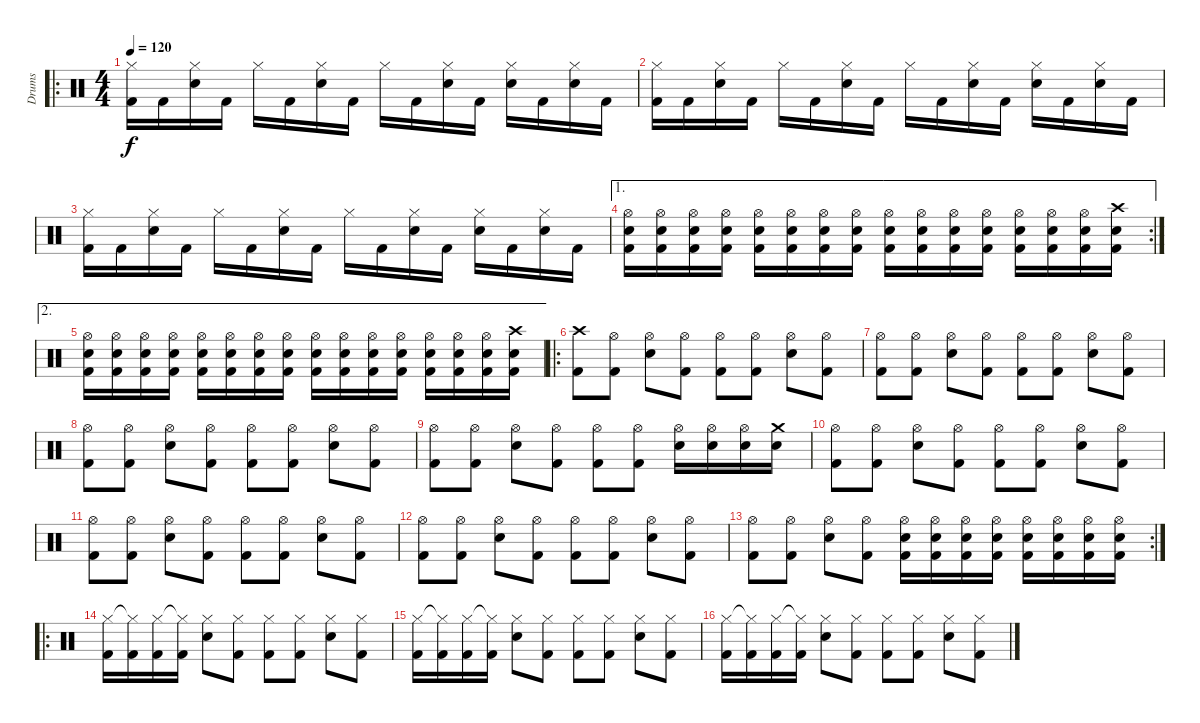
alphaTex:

\track ("Drums" "Drums") {instrument percussion}
\staff {score}
\articulation defaults
\ro
\ts (4 4)
\tempo 120
\clef neutral
\ks c
("Hi-Hat (closed)" "Kick (hit) 2").16{dy f} "Kick (hit) 2".16 ("Hi-Hat (closed)" "Electric Snare (hit)").16 "Kick (hit) 2".16 "Hi-Hat (closed)".16 "Kick (hit) 2".16 ("Hi-Hat (closed)" "Electric Snare (hit)").16 "Kick (hit) 2".16 "Hi-Hat (closed)".16 "Kick (hit) 2".16 ("Hi-Hat (closed)" "Electric Snare (hit)").16 "Kick (hit) 2".16 ("Hi-Hat (closed)" "Electric Snare (hit)").16 "Kick (hit) 2".16 ("Hi-Hat (closed)" "Electric Snare (hit)").16 "Kick (hit) 2".16 |
("Hi-Hat (closed)" "Kick (hit) 2").16 "Kick (hit) 2".16 ("Hi-Hat (closed)" "Electric Snare (hit)").16 "Kick (hit) 2".16 "Hi-Hat (closed)".16 "Kick (hit) 2".16 ("Hi-Hat (closed)" "Electric Snare (hit)").16 "Kick (hit) 2".16 "Hi-Hat (closed)".16 "Kick (hit) 2".16 ("Hi-Hat (closed)" "Electric Snare (hit)").16 "Kick (hit) 2".16 ("Hi-Hat (closed)" "Electric Snare (hit)").16 "Kick (hit) 2".16 ("Hi-Hat (closed)" "Electric Snare (hit)").16 "Kick (hit) 2".16 |
("Hi-Hat (closed)" "Kick (hit) 2").16 "Kick (hit) 2".16 ("Hi-Hat (closed)" "Electric Snare (hit)").16 "Kick (hit) 2".16 "Hi-Hat (closed)".16 "Kick (hit) 2".16 ("Hi-Hat (closed)" "Electric Snare (hit)").16 "Kick (hit) 2".16 "Hi-Hat (closed)".16 "Kick (hit) 2".16 ("Hi-Hat (closed)" "Electric Snare (hit)").16 "Kick (hit) 2".16 ("Hi-Hat (closed)" "Electric Snare (hit)").16 "Kick (hit) 2".16 ("Hi-Hat (closed)" "Electric Snare (hit)").16 "Kick (hit) 2".16 |
\ae 1
\rc 2
("Kick (hit) 2" "Hi-Hat (open)" "Electric Snare (hit)").16 ("Kick (hit) 2" "Hi-Hat (open)" "Electric Snare (hit)").16 ("Kick (hit) 2" "Hi-Hat (open)" "Electric Snare (hit)").16 ("Kick (hit) 2" "Hi-Hat (open)" "Electric Snare (hit)").16 ("Kick (hit) 2" "Hi-Hat (open)" "Electric Snare (hit)").16 ("Kick (hit) 2" "Hi-Hat (open)" "Electric Snare (hit)").16 ("Kick (hit) 2" "Hi-Hat (open)" "Electric Snare (hit)").16 ("Kick (hit) 2" "Hi-Hat (open)" "Electric Snare (hit)").16 ("Kick (hit) 2" "Hi-Hat (open)" "Electric Snare (hit)").16 ("Kick (hit) 2" "Hi-Hat (open)" "Electric Snare (hit)").16 ("Kick (hit) 2" "Hi-Hat (open)" "Electric Snare (hit)").16 ("Kick (hit) 2" "Hi-Hat (open)" "Electric Snare (hit)").16 ("Kick (hit) 2" "Hi-Hat (open)" "Electric Snare (hit)").16 ("Kick (hit) 2" "Hi-Hat (open)" "Electric Snare (hit)").16 ("Kick (hit) 2" "Hi-Hat (open)" "Electric Snare (hit)").16 ("Kick (hit) 2" "Crash high (hit)" "Electric Snare (hit)").16 |
\ae 2
("Kick (hit) 2" "Hi-Hat (open)" "Electric Snare (hit)").16 ("Kick (hit) 2" "Hi-Hat (open)" "Electric Snare (hit)").16 ("Kick (hit) 2" "Hi-Hat (open)" "Electric Snare (hit)").16 ("Kick (hit) 2" "Hi-Hat (open)" "Electric Snare (hit)").16 ("Kick (hit) 2" "Hi-Hat (open)" "Electric Snare (hit)").16 ("Kick (hit) 2" "Hi-Hat (open)" "Electric Snare (hit)").16 ("Kick (hit) 2" "Hi-Hat (open)" "Electric Snare (hit)").16 ("Kick (hit) 2" "Hi-Hat (open)" "Electric Snare (hit)").16 ("Kick (hit) 2" "Hi-Hat (open)" "Electric Snare (hit)").16 ("Kick (hit) 2" "Hi-Hat (open)" "Electric Snare (hit)").16 ("Kick (hit) 2" "Hi-Hat (open)" "Electric Snare (hit)").16 ("Kick (hit) 2" "Hi-Hat (open)" "Electric Snare (hit)").16 ("Kick (hit) 2" "Hi-Hat (open)" "Electric Snare (hit)").16 ("Kick (hit) 2" "Hi-Hat (open)" "Electric Snare (hit)").16 ("Kick (hit) 2" "Hi-Hat (open)" "Electric Snare (hit)").16 ("Kick (hit) 2" "Crash high (hit)" "Electric Snare (hit)").16 |
\ro
("Crash high (hit)" "Kick (hit) 2").8 ("Hi-Hat (open)" "Kick (hit) 2").8 ("Hi-Hat (open)" "Electric Snare (hit)").8 ("Hi-Hat (open)" "Kick (hit) 2").8 ("Hi-Hat (open)" "Kick (hit) 2").8 ("Hi-Hat (open)" "Kick (hit) 2").8 ("Hi-Hat (open)" "Electric Snare (hit)").8 ("Hi-Hat (open)" "Kick (hit) 2").8 |
("Hi-Hat (open)" "Kick (hit) 2").8 ("Hi-Hat (open)" "Kick (hit) 2").8 ("Hi-Hat (open)" "Electric Snare (hit)").8 ("Hi-Hat (open)" "Kick (hit) 2").8 ("Hi-Hat (open)" "Kick (hit) 2").8 ("Hi-Hat (open)" "Kick (hit) 2").8 ("Hi-Hat (open)" "Electric Snare (hit)").8 ("Hi-Hat (open)" "Kick (hit) 2").8 |
("Hi-Hat (open)" "Kick (hit) 2").8 ("Hi-Hat (open)" "Kick (hit) 2").8 ("Hi-Hat (open)" "Electric Snare (hit)").8 ("Hi-Hat (open)" "Kick (hit) 2").8 ("Hi-Hat (open)" "Kick (hit) 2").8 ("Hi-Hat (open)" "Kick (hit) 2").8 ("Hi-Hat (open)" "Electric Snare (hit)").8 ("Hi-Hat (open)" "Kick (hit) 2").8 |
("Hi-Hat (open)" "Kick (hit) 2").8 ("Hi-Hat (open)" "Kick (hit) 2").8 ("Hi-Hat (open)" "Electric Snare (hit)").8 ("Hi-Hat (open)" "Kick (hit) 2").8 ("Hi-Hat (open)" "Kick (hit) 2").8 ("Hi-Hat (open)" "Kick (hit) 2").8 ("Hi-Hat (open)" "Electric Snare (hit)").16 ("Hi-Hat (open)" "Electric Snare (hit)").16 ("Hi-Hat (open)" "Electric Snare (hit)").16 ("Crash medium (hit)" "Electric Snare (hit)").16 |
("Hi-Hat (open)" "Kick (hit) 2").8 ("Hi-Hat (open)" "Kick (hit) 2").8 ("Hi-Hat (open)" "Electric Snare (hit)").8 ("Hi-Hat (open)" "Kick (hit) 2").8 ("Hi-Hat (open)" "Kick (hit) 2").8 ("Hi-Hat (open)" "Kick (hit) 2").8 ("Hi-Hat (open)" "Electric Snare (hit)").8 ("Hi-Hat (open)" "Kick (hit) 2").8 |
("Hi-Hat (open)" "Kick (hit) 2").8 ("Hi-Hat (open)" "Kick (hit) 2").8 ("Hi-Hat (open)" "Electric Snare (hit)").8 ("Hi-Hat (open)" "Kick (hit) 2").8 ("Hi-Hat (open)" "Kick (hit) 2").8 ("Hi-Hat (open)" "Kick (hit) 2").8 ("Hi-Hat (open)" "Electric Snare (hit)").8 ("Hi-Hat (open)" "Kick (hit) 2").8 |
("Hi-Hat (open)" "Kick (hit) 2").8 ("Hi-Hat (open)" "Kick (hit) 2").8 ("Hi-Hat (open)" "Electric Snare (hit)").8 ("Hi-Hat (open)" "Kick (hit) 2").8 ("Hi-Hat (open)" "Kick (hit) 2").8 ("Hi-Hat (open)" "Kick (hit) 2").8 ("Hi-Hat (open)" "Electric Snare (hit)").8 ("Hi-Hat (open)" "Kick (hit) 2").8 |
\rc 2
("Hi-Hat (open)" "Kick (hit) 2").8 ("Hi-Hat (open)" "Kick (hit) 2").8 ("Hi-Hat (open)" "Electric Snare (hit)").8 ("Hi-Hat (open)" "Kick (hit) 2").8 ("Hi-Hat (open)" "Kick (hit) 2" "Electric Snare (hit)").16 ("Hi-Hat (open)" "Kick (hit) 2" "Electric Snare (hit)").16 ("Hi-Hat (open)" "Kick (hit) 2" "Electric Snare (hit)").16 ("Hi-Hat (open)" "Kick (hit) 2" "Electric Snare (hit)").16 ("Hi-Hat (open)" "Kick (hit) 2" "Electric Snare (hit)").16 ("Hi-Hat (open)" "Kick (hit) 2" "Electric Snare (hit)").16 ("Hi-Hat (open)" "Kick (hit) 2" "Electric Snare (hit)").16 ("Hi-Hat (open)" "Kick (hit) 2" "Electric Snare (hit)").16 |
\ro
("Hi-Hat (closed)" "Kick (hit) 2").16 ("Hi-Hat (closed)"{t} "Kick (hit) 2").16 ("Hi-Hat (closed)" "Kick (hit) 2").16 ("Hi-Hat (closed)"{t} "Kick (hit) 2").16 ("Hi-Hat (closed)" "Electric Snare (hit)").8 ("Hi-Hat (closed)" "Kick (hit) 2").8 ("Hi-Hat (closed)" "Kick (hit) 2").8 ("Hi-Hat (closed)" "Kick (hit) 2").8 ("Hi-Hat (closed)" "Electric Snare (hit)").8 ("Hi-Hat (closed)" "Kick (hit) 2").8 |
("Hi-Hat (closed)" "Kick (hit) 2").16 ("Hi-Hat (closed)"{t} "Kick (hit) 2").16 ("Hi-Hat (closed)" "Kick (hit) 2").16 ("Hi-Hat (closed)"{t} "Kick (hit) 2").16 ("Hi-Hat (closed)" "Electric Snare (hit)").8 ("Hi-Hat (closed)" "Kick (hit) 2").8 ("Hi-Hat (closed)" "Kick (hit) 2").8 ("Hi-Hat (closed)" "Kick (hit) 2").8 ("Hi-Hat (closed)" "Electric Snare (hit)").8 ("Hi-Hat (closed)" "Kick (hit) 2").8 |
("Hi-Hat (closed)" "Kick (hit) 2").16 ("Hi-Hat (closed)"{t} "Kick (hit) 2").16 ("Hi-Hat (closed)" "Kick (hit) 2").16 ("Hi-Hat (closed)"{t} "Kick (hit) 2").16 ("Hi-Hat (closed)" "Electric Snare (hit)").8 ("Hi-Hat (closed)" "Kick (hit) 2").8 ("Hi-Hat (closed)" "Kick (hit) 2").8 ("Hi-Hat (closed)" "Kick (hit) 2").8 ("Hi-Hat (closed)" "Electric Snare (hit)").8 ("Hi-Hat (closed)" "Kick (hit) 2").8
